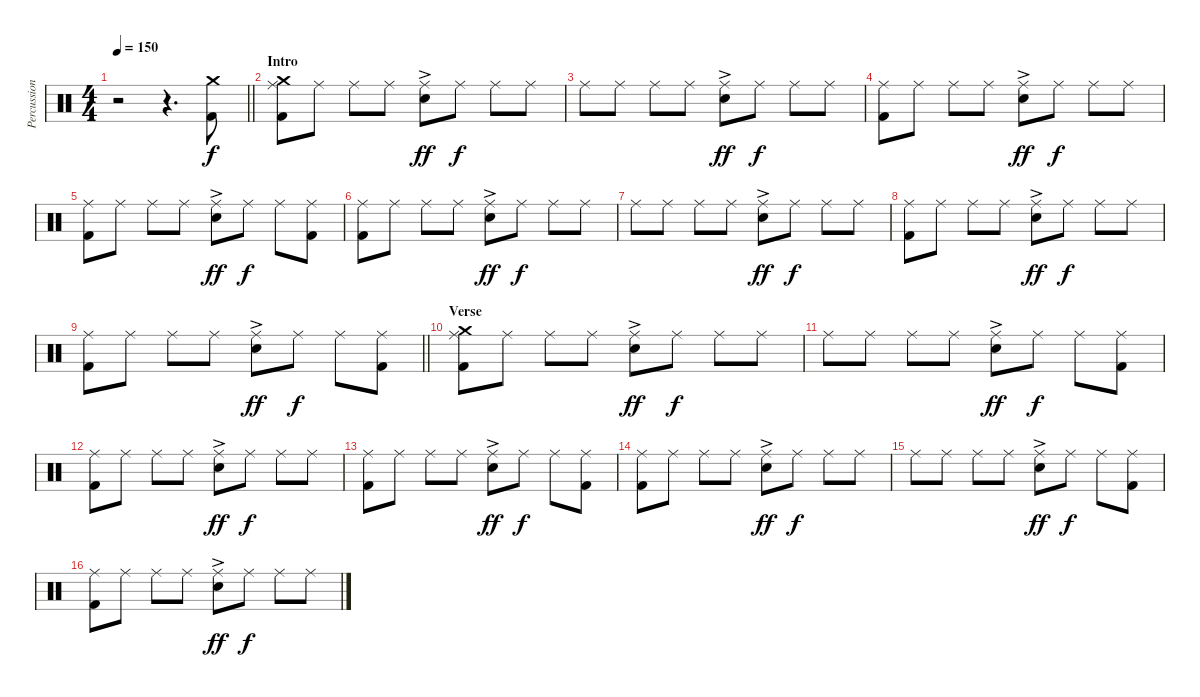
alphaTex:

\track ("Percussion" "Percussion") {instrument percussion}
\staff {score}
\articulation defaults
\ts (4 4)
\tempo 150
\clef neutral
\barLineRight lightlight
\ks c
r.2{dy f} r.4{d} ("Crash medium (hit)" "Kick (hit) 2").8 |
\section ("" "Intro")
("Crash medium (hit)" "Ride (middle)" "Kick (hit) 2").8 "Ride (middle)".8 "Ride (middle)".8 "Ride (middle)".8 ("Ride (middle)" "Electric Snare (hit)"{ac}).8{dy ff} "Ride (middle)".8{dy f} "Ride (middle)".8 "Ride (middle)".8 |
"Ride (middle)".8 "Ride (middle)".8 "Ride (middle)".8 "Ride (middle)".8 ("Ride (middle)" "Electric Snare (hit)"{ac}).8{dy ff} "Ride (middle)".8{dy f} "Ride (middle)".8 "Ride (middle)".8 |
("Ride (middle)" "Kick (hit) 2").8 "Ride (middle)".8 "Ride (middle)".8 "Ride (middle)".8 ("Ride (middle)" "Electric Snare (hit)"{ac}).8{dy ff} "Ride (middle)".8{dy f} "Ride (middle)".8 "Ride (middle)".8 |
("Ride (middle)" "Kick (hit) 2").8 "Ride (middle)".8 "Ride (middle)".8 "Ride (middle)".8 ("Ride (middle)" "Electric Snare (hit)"{ac}).8{dy ff} "Ride (middle)".8{dy f} "Ride (middle)".8 ("Ride (middle)" "Kick (hit) 2").8 |
("Ride (middle)" "Kick (hit) 2").8 "Ride (middle)".8 "Ride (middle)".8 "Ride (middle)".8 ("Ride (middle)" "Electric Snare (hit)"{ac}).8{dy ff} "Ride (middle)".8{dy f} "Ride (middle)".8 "Ride (middle)".8 |
"Ride (middle)".8 "Ride (middle)".8 "Ride (middle)".8 "Ride (middle)".8 ("Ride (middle)" "Electric Snare (hit)"{ac}).8{dy ff} "Ride (middle)".8{dy f} "Ride (middle)".8 "Ride (middle)".8 |
("Ride (middle)" "Kick (hit) 2").8 "Ride (middle)".8 "Ride (middle)".8 "Ride (middle)".8 ("Ride (middle)" "Electric Snare (hit)"{ac}).8{dy ff} "Ride (middle)".8{dy f} "Ride (middle)".8 "Ride (middle)".8 |
\barLineRight lightlight
("Ride (middle)" "Kick (hit) 2").8 "Ride (middle)".8 "Ride (middle)".8 "Ride (middle)".8 ("Ride (middle)" "Electric Snare (hit)"{ac}).8{dy ff} "Ride (middle)".8{dy f} "Ride (middle)".8 ("Ride (middle)" "Kick (hit) 2").8 |
\section ("" "Verse")
("Crash medium (hit)" "Ride (middle)" "Kick (hit) 2").8 "Ride (middle)".8 "Ride (middle)".8 "Ride (middle)".8 ("Ride (middle)" "Electric Snare (hit)"{ac}).8{dy ff} "Ride (middle)".8{dy f} "Ride (middle)".8 "Ride (middle)".8 |
"Ride (middle)".8 "Ride (middle)".8 "Ride (middle)".8 "Ride (middle)".8 ("Ride (middle)" "Electric Snare (hit)"{ac}).8{dy ff} "Ride (middle)".8{dy f} "Ride (middle)".8 ("Ride (middle)" "Kick (hit) 2").8 |
("Ride (middle)" "Kick (hit) 2").8 "Ride (middle)".8 "Ride (middle)".8 "Ride (middle)".8 ("Ride (middle)" "Electric Snare (hit)"{ac}).8{dy ff} "Ride (middle)".8{dy f} "Ride (middle)".8 "Ride (middle)".8 |
("Ride (middle)" "Kick (hit) 2").8 "Ride (middle)".8 "Ride (middle)".8 "Ride (middle)".8 ("Ride (middle)" "Electric Snare (hit)"{ac}).8{dy ff} "Ride (middle)".8{dy f} "Ride (middle)".8 ("Ride (middle)" "Kick (hit) 2").8 |
("Ride (middle)" "Kick (hit) 2").8 "Ride (middle)".8 "Ride (middle)".8 "Ride (middle)".8 ("Ride (middle)" "Electric Snare (hit)"{ac}).8{dy ff} "Ride (middle)".8{dy f} "Ride (middle)".8 "Ride (middle)".8 |
"Ride (middle)".8 "Ride (middle)".8 "Ride (middle)".8 "Ride (middle)".8 ("Ride (middle)" "Electric Snare (hit)"{ac}).8{dy ff} "Ride (middle)".8{dy f} "Ride (middle)".8 ("Ride (middle)" "Kick (hit) 2").8 |
("Ride (middle)" "Kick (hit) 2").8 "Ride (middle)".8 "Ride (middle)".8 "Ride (middle)".8 ("Ride (middle)" "Electric Snare (hit)"{ac}).8{dy ff} "Ride (middle)".8{dy f} "Ride (middle)".8 "Ride (middle)".8
